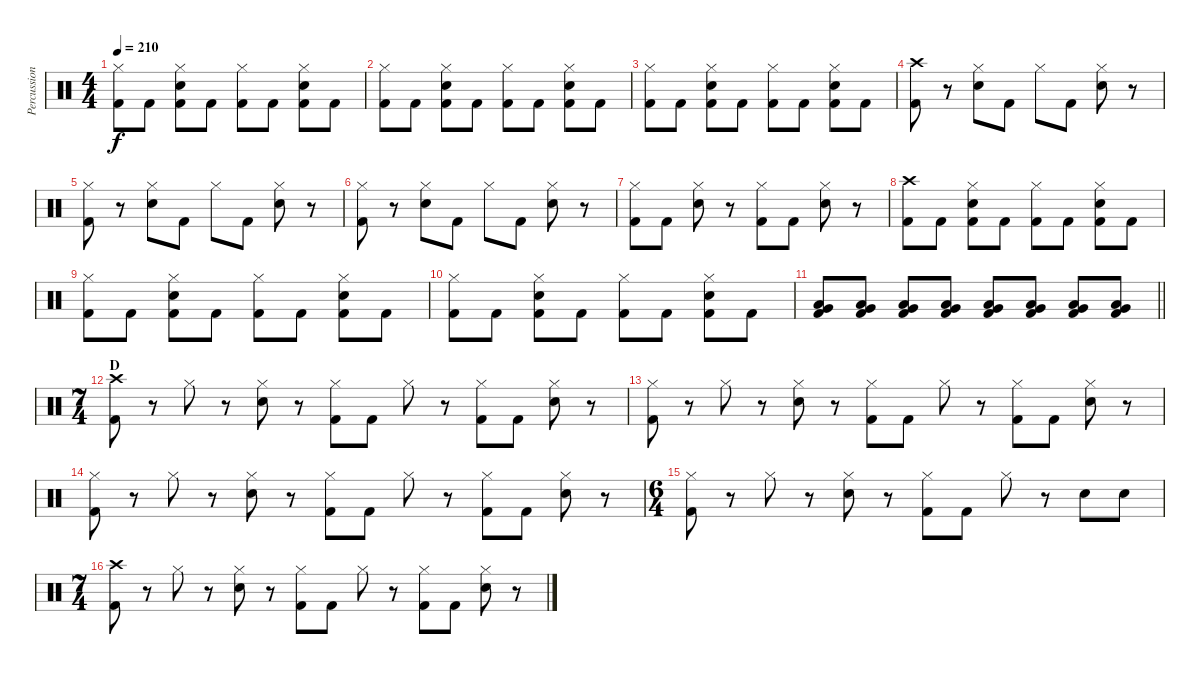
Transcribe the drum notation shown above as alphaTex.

\track ("Percussion" "Percussion") {instrument percussion}
\staff {score}
\articulation defaults
\ts (4 4)
\tempo 210
\clef neutral
\ks c
("Hi-Hat (closed)" "Kick (hit) 2").8{dy f} "Kick (hit) 2".8 ("Hi-Hat (closed)" "Electric Snare (hit)" "Kick (hit) 2").8 "Kick (hit) 2".8 ("Hi-Hat (closed)" "Kick (hit) 2").8 "Kick (hit) 2".8 ("Hi-Hat (closed)" "Electric Snare (hit)" "Kick (hit) 2").8 "Kick (hit) 2".8 |
("Hi-Hat (closed)" "Kick (hit) 2").8 "Kick (hit) 2".8 ("Hi-Hat (closed)" "Electric Snare (hit)" "Kick (hit) 2").8 "Kick (hit) 2".8 ("Hi-Hat (closed)" "Kick (hit) 2").8 "Kick (hit) 2".8 ("Hi-Hat (closed)" "Electric Snare (hit)" "Kick (hit) 2").8 "Kick (hit) 2".8 |
("Hi-Hat (closed)" "Kick (hit) 2").8 "Kick (hit) 2".8 ("Hi-Hat (closed)" "Electric Snare (hit)" "Kick (hit) 2").8 "Kick (hit) 2".8 ("Hi-Hat (closed)" "Kick (hit) 2").8 "Kick (hit) 2".8 ("Hi-Hat (closed)" "Electric Snare (hit)" "Kick (hit) 2").8 "Kick (hit) 2".8 |
("Crash high (hit)" "Kick (hit) 2").8 r.8 ("Hi-Hat (closed)" "Electric Snare (hit)").8 "Kick (hit) 2".8 "Hi-Hat (closed)".8 "Kick (hit) 2".8 ("Hi-Hat (closed)" "Electric Snare (hit)").8 r.8 |
("Hi-Hat (closed)" "Kick (hit) 2").8 r.8 ("Hi-Hat (closed)" "Electric Snare (hit)").8 "Kick (hit) 2".8 "Hi-Hat (closed)".8 "Kick (hit) 2".8 ("Hi-Hat (closed)" "Electric Snare (hit)").8 r.8 |
("Hi-Hat (closed)" "Kick (hit) 2").8 r.8 ("Hi-Hat (closed)" "Electric Snare (hit)").8 "Kick (hit) 2".8 "Hi-Hat (closed)".8 "Kick (hit) 2".8 ("Hi-Hat (closed)" "Electric Snare (hit)").8 r.8 |
("Hi-Hat (closed)" "Kick (hit) 2").8 "Kick (hit) 2".8 ("Hi-Hat (closed)" "Electric Snare (hit)").8 r.8 ("Hi-Hat (closed)" "Kick (hit) 2").8 "Kick (hit) 2".8 ("Hi-Hat (closed)" "Electric Snare (hit)").8 r.8 |
("Crash high (hit)" "Kick (hit) 2").8 "Kick (hit) 2".8 ("Hi-Hat (closed)" "Electric Snare (hit)" "Kick (hit) 2").8 "Kick (hit) 2".8 ("Hi-Hat (closed)" "Kick (hit) 2").8 "Kick (hit) 2".8 ("Hi-Hat (closed)" "Electric Snare (hit)" "Kick (hit) 2").8 "Kick (hit) 2".8 |
("Hi-Hat (closed)" "Kick (hit) 2").8 "Kick (hit) 2".8 ("Hi-Hat (closed)" "Electric Snare (hit)" "Kick (hit) 2").8 "Kick (hit) 2".8 ("Hi-Hat (closed)" "Kick (hit) 2").8 "Kick (hit) 2".8 ("Hi-Hat (closed)" "Electric Snare (hit)" "Kick (hit) 2").8 "Kick (hit) 2".8 |
("Hi-Hat (closed)" "Kick (hit) 2").8 "Kick (hit) 2".8 ("Hi-Hat (closed)" "Electric Snare (hit)" "Kick (hit) 2").8 "Kick (hit) 2".8 ("Hi-Hat (closed)" "Kick (hit) 2").8 "Kick (hit) 2".8 ("Hi-Hat (closed)" "Electric Snare (hit)" "Kick (hit) 2").8 "Kick (hit) 2".8 |
\barLineRight lightlight
("Low Tom (hit)" "Very Low Tom (hit)" "Kick (hit) 2").8 ("Low Tom (hit)" "Very Low Tom (hit)" "Kick (hit) 2").8 ("Low Tom (hit)" "Very Low Tom (hit)" "Kick (hit) 2").8 ("Low Tom (hit)" "Very Low Tom (hit)" "Kick (hit) 2").8 ("Low Tom (hit)" "Very Low Tom (hit)" "Kick (hit) 2").8 ("Low Tom (hit)" "Very Low Tom (hit)" "Kick (hit) 2").8 ("Low Tom (hit)" "Very Low Tom (hit)" "Kick (hit) 2").8 ("Low Tom (hit)" "Very Low Tom (hit)" "Kick (hit) 2").8 |
\ts (7 4)
\section ("" "D")
("Crash high (hit)" "Kick (hit) 2").8 r.8 "Hi-Hat (closed)".8 r.8 ("Hi-Hat (closed)" "Electric Snare (hit)").8 r.8 ("Hi-Hat (closed)" "Kick (hit) 2").8 "Kick (hit) 2".8 "Hi-Hat (closed)".8 r.8 ("Hi-Hat (closed)" "Kick (hit) 2").8 "Kick (hit) 2".8 ("Hi-Hat (closed)" "Electric Snare (hit)").8 r.8 |
("Hi-Hat (closed)" "Kick (hit) 2").8 r.8 "Hi-Hat (closed)".8 r.8 ("Hi-Hat (closed)" "Electric Snare (hit)").8 r.8 ("Hi-Hat (closed)" "Kick (hit) 2").8 "Kick (hit) 2".8 "Hi-Hat (closed)".8 r.8 ("Hi-Hat (closed)" "Kick (hit) 2").8 "Kick (hit) 2".8 ("Hi-Hat (closed)" "Electric Snare (hit)").8 r.8 |
("Hi-Hat (closed)" "Kick (hit) 2").8 r.8 "Hi-Hat (closed)".8 r.8 ("Hi-Hat (closed)" "Electric Snare (hit)").8 r.8 ("Hi-Hat (closed)" "Kick (hit) 2").8 "Kick (hit) 2".8 "Hi-Hat (closed)".8 r.8 ("Hi-Hat (closed)" "Kick (hit) 2").8 "Kick (hit) 2".8 ("Hi-Hat (closed)" "Electric Snare (hit)").8 r.8 |
\ts (6 4)
("Hi-Hat (closed)" "Kick (hit) 2").8 r.8 "Hi-Hat (closed)".8 r.8 ("Hi-Hat (closed)" "Electric Snare (hit)").8 r.8 ("Hi-Hat (closed)" "Kick (hit) 2").8 "Kick (hit) 2".8 "Hi-Hat (closed)".8 r.8 "Electric Snare (hit)".8 "Electric Snare (hit)".8 |
\ts (7 4)
("Crash high (hit)" "Kick (hit) 2").8 r.8 "Hi-Hat (closed)".8 r.8 ("Hi-Hat (closed)" "Electric Snare (hit)").8 r.8 ("Hi-Hat (closed)" "Kick (hit) 2").8 "Kick (hit) 2".8 "Hi-Hat (closed)".8 r.8 ("Hi-Hat (closed)" "Kick (hit) 2").8 "Kick (hit) 2".8 ("Hi-Hat (closed)" "Electric Snare (hit)").8 r.8
